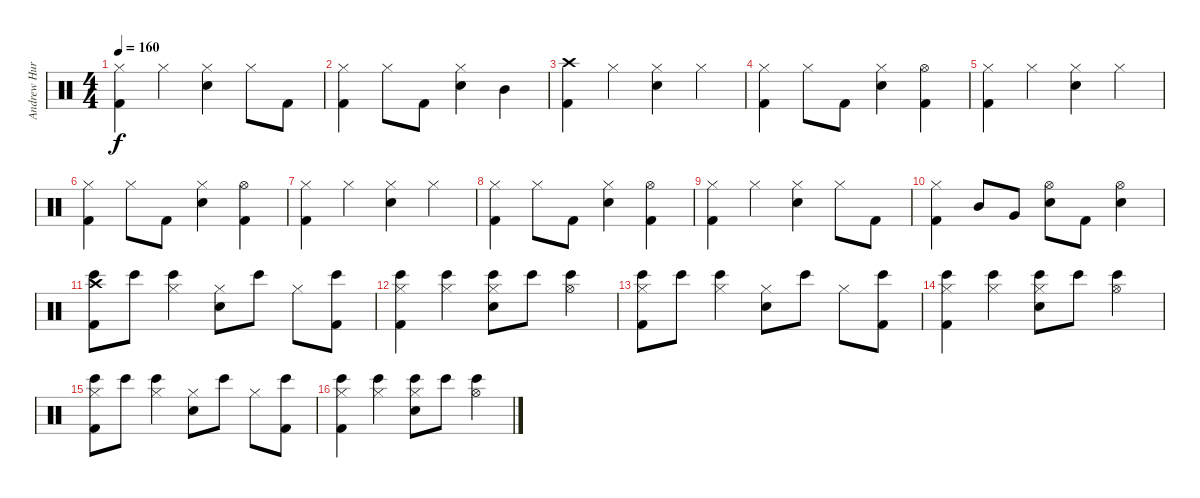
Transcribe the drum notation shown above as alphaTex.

\track ("Andrew Hurley (Drums)" "Andrew Hur") {instrument percussion}
\staff {score}
\articulation defaults
\ts (4 4)
\tempo 160
\clef neutral
\ks c
("Hi-Hat (closed)" "Kick (hit) 2").4{dy f} "Hi-Hat (closed)".4 ("Hi-Hat (closed)" "Snare (hit) 2").4 "Hi-Hat (closed)".8 "Kick (hit) 2".8 |
("Hi-Hat (closed)" "Kick (hit) 2").4 "Hi-Hat (closed)".8 "Kick (hit) 2".8 ("Hi-Hat (closed)" "Snare (hit) 2").4 "Mid Tom (hit)".4 |
("Crash high (hit)" "Kick (hit) 2").4 "Hi-Hat (closed)".4 ("Hi-Hat (closed)" "Snare (hit) 2").4 "Hi-Hat (closed)".4 |
("Hi-Hat (closed)" "Kick (hit) 2").4 "Hi-Hat (closed)".8 "Kick (hit) 2".8 ("Hi-Hat (closed)" "Snare (hit) 2").4 ("Hi-Hat (open)" "Kick (hit) 2").4 |
("Hi-Hat (closed)" "Kick (hit) 2").4 "Hi-Hat (closed)".4 ("Hi-Hat (closed)" "Snare (hit) 2").4 "Hi-Hat (closed)".4 |
("Hi-Hat (closed)" "Kick (hit) 2").4 "Hi-Hat (closed)".8 "Kick (hit) 2".8 ("Hi-Hat (closed)" "Snare (hit) 2").4 ("Hi-Hat (open)" "Kick (hit) 2").4 |
("Hi-Hat (closed)" "Kick (hit) 2").4 "Hi-Hat (closed)".4 ("Hi-Hat (closed)" "Snare (hit) 2").4 "Hi-Hat (closed)".4 |
("Hi-Hat (closed)" "Kick (hit) 2").4 "Hi-Hat (closed)".8 "Kick (hit) 2".8 ("Hi-Hat (closed)" "Snare (hit) 2").4 ("Hi-Hat (open)" "Kick (hit) 2").4 |
("Hi-Hat (closed)" "Kick (hit) 2").4 "Hi-Hat (closed)".4 ("Hi-Hat (closed)" "Snare (hit) 2").4 "Hi-Hat (closed)".8 "Kick (hit) 2".8 |
("Hi-Hat (closed)" "Kick (hit) 2").4 "Mid Tom (hit)".8 "Very Low Tom (hit)".8 ("Hi-Hat (open)" "Snare (hit) 2").8 "Kick (hit) 2".8 ("Hi-Hat (open)" "Snare (hit) 2").4 |
("Crash high (hit)" "Bongo High (hit)" "Kick (hit) 2").8 "Bongo High (hit)".8 ("Hi-Hat (closed)" "Bongo High (hit)").4 ("Hi-Hat (closed)" "Snare (hit) 2").8 "Bongo High (hit)".8 "Hi-Hat (closed)".8 ("Bongo High (hit)" "Kick (hit) 2").8 |
("Hi-Hat (closed)" "Bongo High (hit)" "Kick (hit) 2").4 ("Hi-Hat (closed)" "Bongo High (hit)").4 ("Hi-Hat (closed)" "Bongo High (hit)" "Snare (hit) 2").8 "Bongo High (hit)".8 ("Hi-Hat (open)" "Bongo High (hit)").4 |
("Hi-Hat (closed)" "Bongo High (hit)" "Kick (hit) 2").8 "Bongo High (hit)".8 ("Hi-Hat (closed)" "Bongo High (hit)").4 ("Hi-Hat (closed)" "Snare (hit) 2").8 "Bongo High (hit)".8 "Hi-Hat (closed)".8 ("Bongo High (hit)" "Kick (hit) 2").8 |
("Hi-Hat (closed)" "Bongo High (hit)" "Kick (hit) 2").4 ("Hi-Hat (closed)" "Bongo High (hit)").4 ("Hi-Hat (closed)" "Bongo High (hit)" "Snare (hit) 2").8 "Bongo High (hit)".8 ("Hi-Hat (open)" "Bongo High (hit)").4 |
("Hi-Hat (closed)" "Bongo High (hit)" "Kick (hit) 2").8 "Bongo High (hit)".8 ("Hi-Hat (closed)" "Bongo High (hit)").4 ("Hi-Hat (closed)" "Snare (hit) 2").8 "Bongo High (hit)".8 "Hi-Hat (closed)".8 ("Bongo High (hit)" "Kick (hit) 2").8 |
("Hi-Hat (closed)" "Bongo High (hit)" "Kick (hit) 2").4 ("Hi-Hat (closed)" "Bongo High (hit)").4 ("Hi-Hat (closed)" "Bongo High (hit)" "Snare (hit) 2").8 "Bongo High (hit)".8 ("Hi-Hat (open)" "Bongo High (hit)").4
